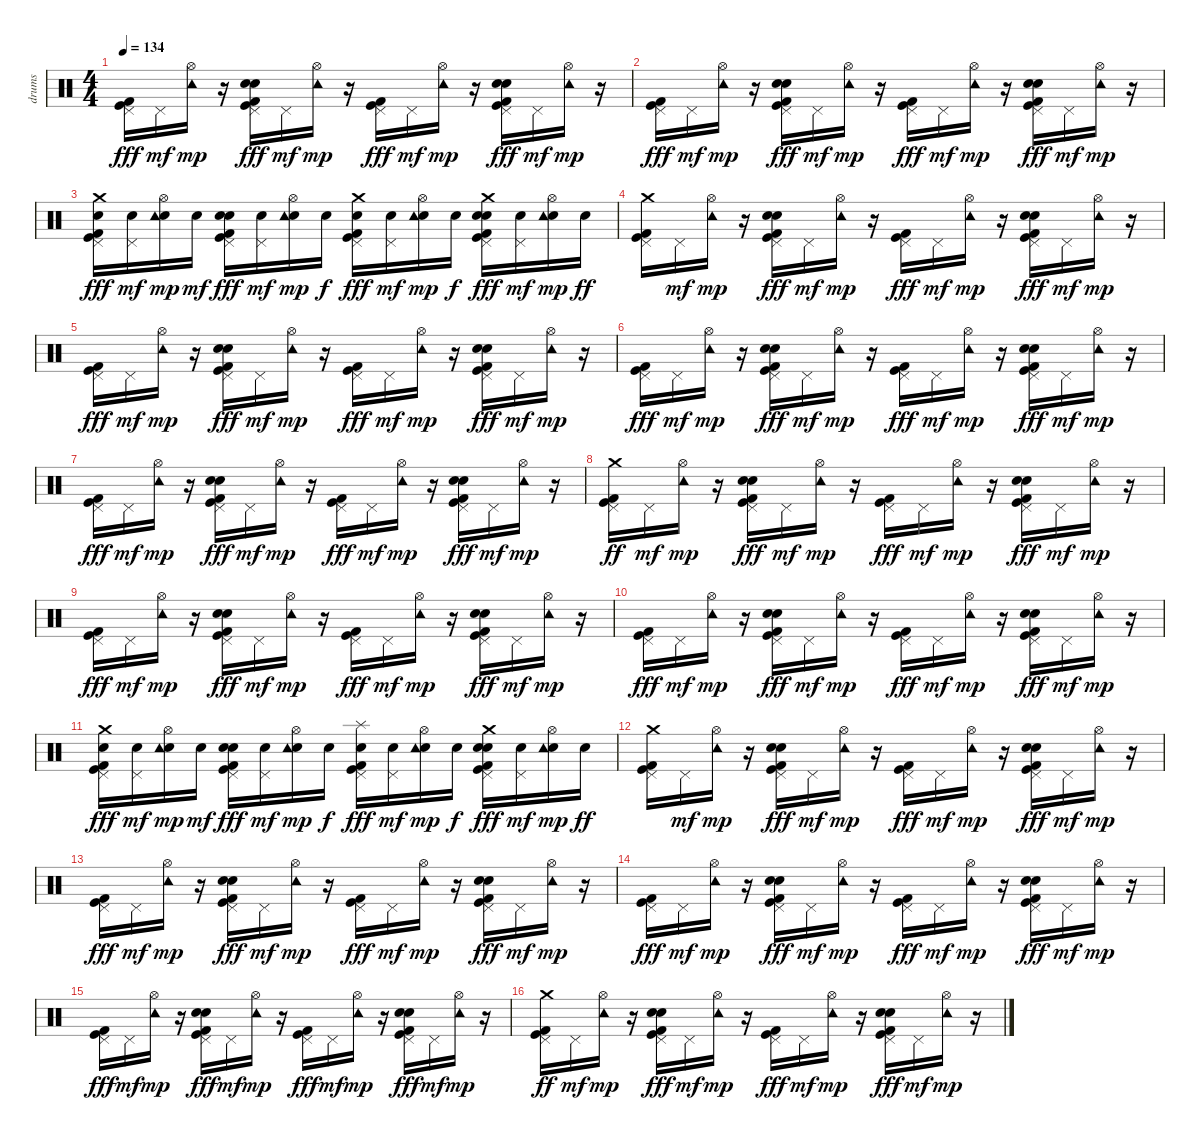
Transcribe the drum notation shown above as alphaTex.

\track ("drums" "drums") {instrument percussion}
\staff {score}
\articulation defaults
\ts (4 4)
\tempo 134
\clef neutral
\ks c
("Kick (hit)" "Kick (hit) 2" "Pedal Hi-Hat (hit)").16{dy fff} "Pedal Hi-Hat (hit)".16{dy mf} ("Hi-Hat (open)" "Tambourine (hit)").16{dy mp} r.16 ("Electric Snare (hit)" "Kick (hit)" "Kick (hit) 2" "Hand Clap (hit)" "Pedal Hi-Hat (hit)").16{dy fff} "Pedal Hi-Hat (hit)".16{dy mf} ("Hi-Hat (open)" "Tambourine (hit)").16{dy mp} r.16 ("Kick (hit)" "Kick (hit) 2" "Pedal Hi-Hat (hit)").16{dy fff} "Pedal Hi-Hat (hit)".16{dy mf} ("Hi-Hat (open)" "Tambourine (hit)").16{dy mp} r.16 ("Electric Snare (hit)" "Kick (hit)" "Kick (hit) 2" "Hand Clap (hit)" "Pedal Hi-Hat (hit)").16{dy fff} "Pedal Hi-Hat (hit)".16{dy mf} ("Hi-Hat (open)" "Tambourine (hit)").16{dy mp} r.16 |
("Kick (hit)" "Kick (hit) 2" "Pedal Hi-Hat (hit)").16{dy fff} "Pedal Hi-Hat (hit)".16{dy mf} ("Hi-Hat (open)" "Tambourine (hit)").16{dy mp} r.16 ("Electric Snare (hit)" "Kick (hit)" "Kick (hit) 2" "Hand Clap (hit)" "Pedal Hi-Hat (hit)").16{dy fff} "Pedal Hi-Hat (hit)".16{dy mf} ("Hi-Hat (open)" "Tambourine (hit)").16{dy mp} r.16 ("Kick (hit)" "Kick (hit) 2" "Pedal Hi-Hat (hit)").16{dy fff} "Pedal Hi-Hat (hit)".16{dy mf} ("Hi-Hat (open)" "Tambourine (hit)").16{dy mp} r.16 ("Electric Snare (hit)" "Kick (hit)" "Kick (hit) 2" "Hand Clap (hit)" "Pedal Hi-Hat (hit)").16{dy fff} "Pedal Hi-Hat (hit)".16{dy mf} ("Hi-Hat (open)" "Tambourine (hit)").16{dy mp} r.16 |
("Crash medium (hit)" "Electric Snare (hit)" "Kick (hit)" "Kick (hit) 2" "Pedal Hi-Hat (hit)").16{dy fff} ("Electric Snare (hit)" "Pedal Hi-Hat (hit)").16{dy mf} ("Electric Snare (hit)" "Hi-Hat (open)" "Tambourine (hit)").16{dy mp} "Electric Snare (hit)".16{dy mf} ("Electric Snare (hit)" "Kick (hit)" "Kick (hit) 2" "Hand Clap (hit)" "Pedal Hi-Hat (hit)").16{dy fff} ("Electric Snare (hit)" "Pedal Hi-Hat (hit)").16{dy mf} ("Electric Snare (hit)" "Hi-Hat (open)" "Tambourine (hit)").16{dy mp} "Electric Snare (hit)".16{dy f} ("Crash medium (hit)" "Electric Snare (hit)" "Kick (hit)" "Kick (hit) 2" "Pedal Hi-Hat (hit)").16{dy fff} ("Electric Snare (hit)" "Pedal Hi-Hat (hit)").16{dy mf} ("Electric Snare (hit)" "Hi-Hat (open)" "Tambourine (hit)").16{dy mp} "Electric Snare (hit)".16{dy f} ("Crash medium (hit)" "Electric Snare (hit)" "Kick (hit)" "Kick (hit) 2" "Hand Clap (hit)" "Pedal Hi-Hat (hit)").16{dy fff} ("Electric Snare (hit)" "Pedal Hi-Hat (hit)").16{dy mf} ("Electric Snare (hit)" "Hi-Hat (open)" "Tambourine (hit)").16{dy mp} "Electric Snare (hit)".16{dy ff} |
("Kick (hit)" "Kick (hit) 2" "Pedal Hi-Hat (hit)" "Crash medium (hit)").16 "Pedal Hi-Hat (hit)".16{dy mf} ("Hi-Hat (open)" "Tambourine (hit)").16{dy mp} r.16 ("Electric Snare (hit)" "Kick (hit)" "Kick (hit) 2" "Hand Clap (hit)" "Pedal Hi-Hat (hit)").16{dy fff} "Pedal Hi-Hat (hit)".16{dy mf} ("Hi-Hat (open)" "Tambourine (hit)").16{dy mp} r.16 ("Kick (hit)" "Kick (hit) 2" "Pedal Hi-Hat (hit)").16{dy fff} "Pedal Hi-Hat (hit)".16{dy mf} ("Hi-Hat (open)" "Tambourine (hit)").16{dy mp} r.16 ("Electric Snare (hit)" "Kick (hit)" "Kick (hit) 2" "Hand Clap (hit)" "Pedal Hi-Hat (hit)").16{dy fff} "Pedal Hi-Hat (hit)".16{dy mf} ("Hi-Hat (open)" "Tambourine (hit)").16{dy mp} r.16 |
("Kick (hit)" "Kick (hit) 2" "Pedal Hi-Hat (hit)").16{dy fff} "Pedal Hi-Hat (hit)".16{dy mf} ("Hi-Hat (open)" "Tambourine (hit)").16{dy mp} r.16 ("Electric Snare (hit)" "Kick (hit)" "Kick (hit) 2" "Hand Clap (hit)" "Pedal Hi-Hat (hit)").16{dy fff} "Pedal Hi-Hat (hit)".16{dy mf} ("Hi-Hat (open)" "Tambourine (hit)").16{dy mp} r.16 ("Kick (hit)" "Kick (hit) 2" "Pedal Hi-Hat (hit)").16{dy fff} "Pedal Hi-Hat (hit)".16{dy mf} ("Hi-Hat (open)" "Tambourine (hit)").16{dy mp} r.16 ("Electric Snare (hit)" "Kick (hit)" "Kick (hit) 2" "Hand Clap (hit)" "Pedal Hi-Hat (hit)").16{dy fff} "Pedal Hi-Hat (hit)".16{dy mf} ("Hi-Hat (open)" "Tambourine (hit)").16{dy mp} r.16 |
("Kick (hit)" "Kick (hit) 2" "Pedal Hi-Hat (hit)").16{dy fff} "Pedal Hi-Hat (hit)".16{dy mf} ("Hi-Hat (open)" "Tambourine (hit)").16{dy mp} r.16 ("Electric Snare (hit)" "Kick (hit)" "Kick (hit) 2" "Hand Clap (hit)" "Pedal Hi-Hat (hit)").16{dy fff} "Pedal Hi-Hat (hit)".16{dy mf} ("Hi-Hat (open)" "Tambourine (hit)").16{dy mp} r.16 ("Kick (hit)" "Kick (hit) 2" "Pedal Hi-Hat (hit)").16{dy fff} "Pedal Hi-Hat (hit)".16{dy mf} ("Hi-Hat (open)" "Tambourine (hit)").16{dy mp} r.16 ("Electric Snare (hit)" "Kick (hit)" "Kick (hit) 2" "Hand Clap (hit)" "Pedal Hi-Hat (hit)").16{dy fff} "Pedal Hi-Hat (hit)".16{dy mf} ("Hi-Hat (open)" "Tambourine (hit)").16{dy mp} r.16 |
("Kick (hit)" "Kick (hit) 2" "Pedal Hi-Hat (hit)").16{dy fff} "Pedal Hi-Hat (hit)".16{dy mf} ("Hi-Hat (open)" "Tambourine (hit)").16{dy mp} r.16 ("Electric Snare (hit)" "Kick (hit)" "Kick (hit) 2" "Hand Clap (hit)" "Pedal Hi-Hat (hit)").16{dy fff} "Pedal Hi-Hat (hit)".16{dy mf} ("Hi-Hat (open)" "Tambourine (hit)").16{dy mp} r.16 ("Kick (hit)" "Kick (hit) 2" "Pedal Hi-Hat (hit)").16{dy fff} "Pedal Hi-Hat (hit)".16{dy mf} ("Hi-Hat (open)" "Tambourine (hit)").16{dy mp} r.16 ("Electric Snare (hit)" "Kick (hit)" "Kick (hit) 2" "Hand Clap (hit)" "Pedal Hi-Hat (hit)").16{dy fff} "Pedal Hi-Hat (hit)".16{dy mf} ("Hi-Hat (open)" "Tambourine (hit)").16{dy mp} r.16 |
("Kick (hit)" "Kick (hit) 2" "Pedal Hi-Hat (hit)" "Crash medium (hit)").16{dy ff} "Pedal Hi-Hat (hit)".16{dy mf} ("Hi-Hat (open)" "Tambourine (hit)").16{dy mp} r.16 ("Electric Snare (hit)" "Kick (hit)" "Kick (hit) 2" "Hand Clap (hit)" "Pedal Hi-Hat (hit)").16{dy fff} "Pedal Hi-Hat (hit)".16{dy mf} ("Hi-Hat (open)" "Tambourine (hit)").16{dy mp} r.16 ("Kick (hit)" "Kick (hit) 2" "Pedal Hi-Hat (hit)").16{dy fff} "Pedal Hi-Hat (hit)".16{dy mf} ("Hi-Hat (open)" "Tambourine (hit)").16{dy mp} r.16 ("Electric Snare (hit)" "Kick (hit)" "Kick (hit) 2" "Hand Clap (hit)" "Pedal Hi-Hat (hit)").16{dy fff} "Pedal Hi-Hat (hit)".16{dy mf} ("Hi-Hat (open)" "Tambourine (hit)").16{dy mp} r.16 |
("Kick (hit)" "Kick (hit) 2" "Pedal Hi-Hat (hit)").16{dy fff} "Pedal Hi-Hat (hit)".16{dy mf} ("Hi-Hat (open)" "Tambourine (hit)").16{dy mp} r.16 ("Electric Snare (hit)" "Kick (hit)" "Kick (hit) 2" "Hand Clap (hit)" "Pedal Hi-Hat (hit)").16{dy fff} "Pedal Hi-Hat (hit)".16{dy mf} ("Hi-Hat (open)" "Tambourine (hit)").16{dy mp} r.16 ("Kick (hit)" "Kick (hit) 2" "Pedal Hi-Hat (hit)").16{dy fff} "Pedal Hi-Hat (hit)".16{dy mf} ("Hi-Hat (open)" "Tambourine (hit)").16{dy mp} r.16 ("Electric Snare (hit)" "Kick (hit)" "Kick (hit) 2" "Hand Clap (hit)" "Pedal Hi-Hat (hit)").16{dy fff} "Pedal Hi-Hat (hit)".16{dy mf} ("Hi-Hat (open)" "Tambourine (hit)").16{dy mp} r.16 |
("Kick (hit)" "Kick (hit) 2" "Pedal Hi-Hat (hit)").16{dy fff} "Pedal Hi-Hat (hit)".16{dy mf} ("Hi-Hat (open)" "Tambourine (hit)").16{dy mp} r.16 ("Electric Snare (hit)" "Kick (hit)" "Kick (hit) 2" "Hand Clap (hit)" "Pedal Hi-Hat (hit)").16{dy fff} "Pedal Hi-Hat (hit)".16{dy mf} ("Hi-Hat (open)" "Tambourine (hit)").16{dy mp} r.16 ("Kick (hit)" "Kick (hit) 2" "Pedal Hi-Hat (hit)").16{dy fff} "Pedal Hi-Hat (hit)".16{dy mf} ("Hi-Hat (open)" "Tambourine (hit)").16{dy mp} r.16 ("Electric Snare (hit)" "Kick (hit)" "Kick (hit) 2" "Hand Clap (hit)" "Pedal Hi-Hat (hit)").16{dy fff} "Pedal Hi-Hat (hit)".16{dy mf} ("Hi-Hat (open)" "Tambourine (hit)").16{dy mp} r.16 |
("Electric Snare (hit)" "Crash medium (hit)" "Kick (hit)" "Kick (hit) 2" "Pedal Hi-Hat (hit)").16{dy fff} ("Electric Snare (hit)" "Pedal Hi-Hat (hit)").16{dy mf} ("Electric Snare (hit)" "Hi-Hat (open)" "Tambourine (hit)").16{dy mp} "Electric Snare (hit)".16{dy mf} ("Electric Snare (hit)" "Kick (hit)" "Kick (hit) 2" "Hand Clap (hit)" "Pedal Hi-Hat (hit)").16{dy fff} ("Electric Snare (hit)" "Pedal Hi-Hat (hit)").16{dy mf} ("Electric Snare (hit)" "Hi-Hat (open)" "Tambourine (hit)").16{dy mp} "Electric Snare (hit)".16{dy f} ("Electric Snare (hit)" "Splash (hit)" "Kick (hit)" "Kick (hit) 2" "Pedal Hi-Hat (hit)").16{dy fff} ("Electric Snare (hit)" "Pedal Hi-Hat (hit)").16{dy mf} ("Electric Snare (hit)" "Hi-Hat (open)" "Tambourine (hit)").16{dy mp} "Electric Snare (hit)".16{dy f} ("Electric Snare (hit)" "Crash medium (hit)" "Kick (hit)" "Kick (hit) 2" "Hand Clap (hit)" "Pedal Hi-Hat (hit)").16{dy fff} ("Electric Snare (hit)" "Pedal Hi-Hat (hit)").16{dy mf} ("Electric Snare (hit)" "Hi-Hat (open)" "Tambourine (hit)").16{dy mp} "Electric Snare (hit)".16{dy ff} |
("Kick (hit)" "Kick (hit) 2" "Pedal Hi-Hat (hit)" "Crash medium (hit)").16 "Pedal Hi-Hat (hit)".16{dy mf} ("Hi-Hat (open)" "Tambourine (hit)").16{dy mp} r.16 ("Electric Snare (hit)" "Kick (hit)" "Kick (hit) 2" "Hand Clap (hit)" "Pedal Hi-Hat (hit)").16{dy fff} "Pedal Hi-Hat (hit)".16{dy mf} ("Hi-Hat (open)" "Tambourine (hit)").16{dy mp} r.16 ("Kick (hit)" "Kick (hit) 2" "Pedal Hi-Hat (hit)").16{dy fff} "Pedal Hi-Hat (hit)".16{dy mf} ("Hi-Hat (open)" "Tambourine (hit)").16{dy mp} r.16 ("Electric Snare (hit)" "Kick (hit)" "Kick (hit) 2" "Hand Clap (hit)" "Pedal Hi-Hat (hit)").16{dy fff} "Pedal Hi-Hat (hit)".16{dy mf} ("Hi-Hat (open)" "Tambourine (hit)").16{dy mp} r.16 |
("Kick (hit)" "Kick (hit) 2" "Pedal Hi-Hat (hit)").16{dy fff} "Pedal Hi-Hat (hit)".16{dy mf} ("Hi-Hat (open)" "Tambourine (hit)").16{dy mp} r.16 ("Electric Snare (hit)" "Kick (hit)" "Kick (hit) 2" "Hand Clap (hit)" "Pedal Hi-Hat (hit)").16{dy fff} "Pedal Hi-Hat (hit)".16{dy mf} ("Hi-Hat (open)" "Tambourine (hit)").16{dy mp} r.16 ("Kick (hit)" "Kick (hit) 2" "Pedal Hi-Hat (hit)").16{dy fff} "Pedal Hi-Hat (hit)".16{dy mf} ("Hi-Hat (open)" "Tambourine (hit)").16{dy mp} r.16 ("Electric Snare (hit)" "Kick (hit)" "Kick (hit) 2" "Hand Clap (hit)" "Pedal Hi-Hat (hit)").16{dy fff} "Pedal Hi-Hat (hit)".16{dy mf} ("Hi-Hat (open)" "Tambourine (hit)").16{dy mp} r.16 |
("Kick (hit)" "Kick (hit) 2" "Pedal Hi-Hat (hit)").16{dy fff} "Pedal Hi-Hat (hit)".16{dy mf} ("Hi-Hat (open)" "Tambourine (hit)").16{dy mp} r.16 ("Electric Snare (hit)" "Kick (hit)" "Kick (hit) 2" "Hand Clap (hit)" "Pedal Hi-Hat (hit)").16{dy fff} "Pedal Hi-Hat (hit)".16{dy mf} ("Hi-Hat (open)" "Tambourine (hit)").16{dy mp} r.16 ("Kick (hit)" "Kick (hit) 2" "Pedal Hi-Hat (hit)").16{dy fff} "Pedal Hi-Hat (hit)".16{dy mf} ("Hi-Hat (open)" "Tambourine (hit)").16{dy mp} r.16 ("Electric Snare (hit)" "Kick (hit)" "Kick (hit) 2" "Hand Clap (hit)" "Pedal Hi-Hat (hit)").16{dy fff} "Pedal Hi-Hat (hit)".16{dy mf} ("Hi-Hat (open)" "Tambourine (hit)").16{dy mp} r.16 |
("Kick (hit)" "Kick (hit) 2" "Pedal Hi-Hat (hit)").16{dy fff} "Pedal Hi-Hat (hit)".16{dy mf} ("Hi-Hat (open)" "Tambourine (hit)").16{dy mp} r.16 ("Electric Snare (hit)" "Kick (hit)" "Kick (hit) 2" "Hand Clap (hit)" "Pedal Hi-Hat (hit)").16{dy fff} "Pedal Hi-Hat (hit)".16{dy mf} ("Hi-Hat (open)" "Tambourine (hit)").16{dy mp} r.16 ("Kick (hit)" "Kick (hit) 2" "Pedal Hi-Hat (hit)").16{dy fff} "Pedal Hi-Hat (hit)".16{dy mf} ("Hi-Hat (open)" "Tambourine (hit)").16{dy mp} r.16 ("Electric Snare (hit)" "Kick (hit)" "Kick (hit) 2" "Hand Clap (hit)" "Pedal Hi-Hat (hit)").16{dy fff} "Pedal Hi-Hat (hit)".16{dy mf} ("Hi-Hat (open)" "Tambourine (hit)").16{dy mp} r.16 |
("Kick (hit)" "Kick (hit) 2" "Pedal Hi-Hat (hit)" "Crash medium (hit)").16{dy ff} "Pedal Hi-Hat (hit)".16{dy mf} ("Hi-Hat (open)" "Tambourine (hit)").16{dy mp} r.16 ("Electric Snare (hit)" "Kick (hit)" "Kick (hit) 2" "Hand Clap (hit)" "Pedal Hi-Hat (hit)").16{dy fff} "Pedal Hi-Hat (hit)".16{dy mf} ("Hi-Hat (open)" "Tambourine (hit)").16{dy mp} r.16 ("Kick (hit)" "Kick (hit) 2" "Pedal Hi-Hat (hit)").16{dy fff} "Pedal Hi-Hat (hit)".16{dy mf} ("Hi-Hat (open)" "Tambourine (hit)").16{dy mp} r.16 ("Electric Snare (hit)" "Kick (hit)" "Kick (hit) 2" "Hand Clap (hit)" "Pedal Hi-Hat (hit)").16{dy fff} "Pedal Hi-Hat (hit)".16{dy mf} ("Hi-Hat (open)" "Tambourine (hit)").16{dy mp} r.16
